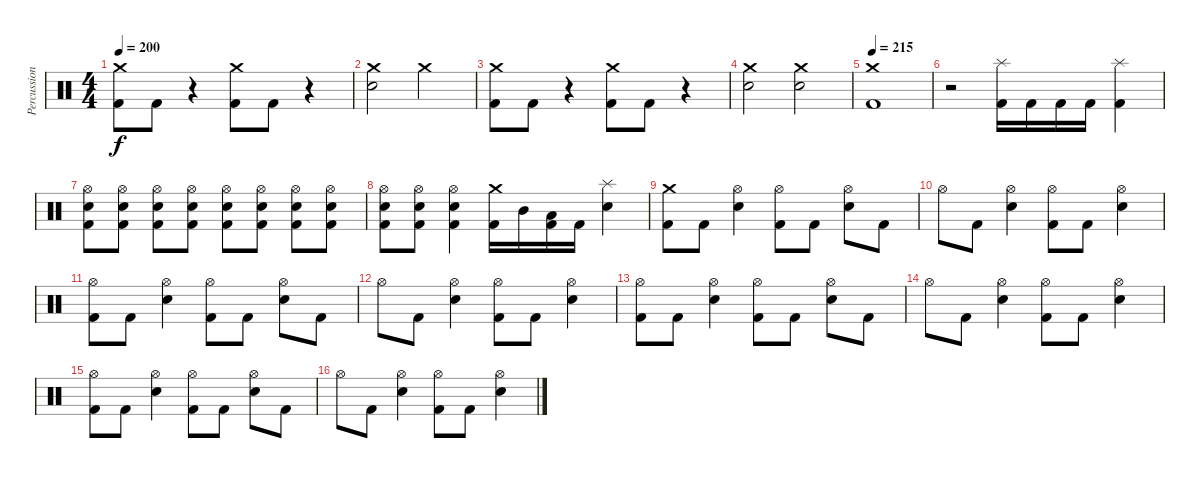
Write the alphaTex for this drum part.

\track ("Percussion" "Percussion") {instrument percussion}
\staff {score}
\articulation defaults
\ts (4 4)
\tempo 200
\clef neutral
\ks c
("Crash medium (hit)" "Kick (hit) 2").8{dy f} "Kick (hit) 2".8 r.4 ("Crash medium (hit)" "Kick (hit) 2").8 "Kick (hit) 2".8 r.4 |
("Crash medium (hit)" "Electric Snare (hit)").2 "Crash medium (hit)".2 |
("Crash medium (hit)" "Kick (hit) 2").8 "Kick (hit) 2".8 r.4 ("Crash medium (hit)" "Kick (hit) 2").8 "Kick (hit) 2".8 r.4 |
("Crash medium (hit)" "Electric Snare (hit)").2 ("Crash medium (hit)" "Electric Snare (hit)").2 |
\tempo 215
("Crash medium (hit)" "Kick (hit) 2").1 |
r.2 ("Splash (hit)" "Kick (hit) 2").16 "Kick (hit) 2".16 "Kick (hit) 2".16 "Kick (hit) 2".16 ("Splash (hit)" "Kick (hit) 2").4 |
("Hi-Hat (open)" "Electric Snare (hit)" "Kick (hit) 2").8 ("Hi-Hat (open)" "Electric Snare (hit)" "Kick (hit) 2").8 ("Hi-Hat (open)" "Electric Snare (hit)" "Kick (hit) 2").8 ("Hi-Hat (open)" "Electric Snare (hit)" "Kick (hit) 2").8 ("Hi-Hat (open)" "Electric Snare (hit)" "Kick (hit) 2").8 ("Hi-Hat (open)" "Electric Snare (hit)" "Kick (hit) 2").8 ("Hi-Hat (open)" "Electric Snare (hit)" "Kick (hit) 2").8 ("Hi-Hat (open)" "Electric Snare (hit)" "Kick (hit) 2").8 |
("Hi-Hat (open)" "Electric Snare (hit)" "Kick (hit) 2").8 ("Hi-Hat (open)" "Electric Snare (hit)" "Kick (hit) 2").8 ("Hi-Hat (open)" "Electric Snare (hit)" "Kick (hit) 2").4 ("Crash medium (hit)" "Kick (hit) 2").16 "Mid Tom (hit)".16 ("Low Tom (hit)" "Kick (hit) 2").16 "Kick (hit) 2".16 ("Splash (hit)" "Electric Snare (hit)").4 |
("Crash medium (hit)" "Kick (hit) 2").8 "Kick (hit) 2".8 ("Hi-Hat (open)" "Electric Snare (hit)").4 ("Hi-Hat (open)" "Kick (hit) 2").8 "Kick (hit) 2".8 ("Hi-Hat (open)" "Electric Snare (hit)").8 "Kick (hit) 2".8 |
"Hi-Hat (open)".8 "Kick (hit) 2".8 ("Hi-Hat (open)" "Electric Snare (hit)").4 ("Hi-Hat (open)" "Kick (hit) 2").8 "Kick (hit) 2".8 ("Hi-Hat (open)" "Electric Snare (hit)").4 |
("Hi-Hat (open)" "Kick (hit) 2").8 "Kick (hit) 2".8 ("Hi-Hat (open)" "Electric Snare (hit)").4 ("Hi-Hat (open)" "Kick (hit) 2").8 "Kick (hit) 2".8 ("Hi-Hat (open)" "Electric Snare (hit)").8 "Kick (hit) 2".8 |
"Hi-Hat (open)".8 "Kick (hit) 2".8 ("Hi-Hat (open)" "Electric Snare (hit)").4 ("Hi-Hat (open)" "Kick (hit) 2").8 "Kick (hit) 2".8 ("Hi-Hat (open)" "Electric Snare (hit)").4 |
("Hi-Hat (open)" "Kick (hit) 2").8 "Kick (hit) 2".8 ("Hi-Hat (open)" "Electric Snare (hit)").4 ("Hi-Hat (open)" "Kick (hit) 2").8 "Kick (hit) 2".8 ("Hi-Hat (open)" "Electric Snare (hit)").8 "Kick (hit) 2".8 |
"Hi-Hat (open)".8 "Kick (hit) 2".8 ("Hi-Hat (open)" "Electric Snare (hit)").4 ("Hi-Hat (open)" "Kick (hit) 2").8 "Kick (hit) 2".8 ("Hi-Hat (open)" "Electric Snare (hit)").4 |
("Hi-Hat (open)" "Kick (hit) 2").8 "Kick (hit) 2".8 ("Hi-Hat (open)" "Electric Snare (hit)").4 ("Hi-Hat (open)" "Kick (hit) 2").8 "Kick (hit) 2".8 ("Hi-Hat (open)" "Electric Snare (hit)").8 "Kick (hit) 2".8 |
"Hi-Hat (open)".8 "Kick (hit) 2".8 ("Hi-Hat (open)" "Electric Snare (hit)").4 ("Hi-Hat (open)" "Kick (hit) 2").8 "Kick (hit) 2".8 ("Hi-Hat (open)" "Electric Snare (hit)").4
